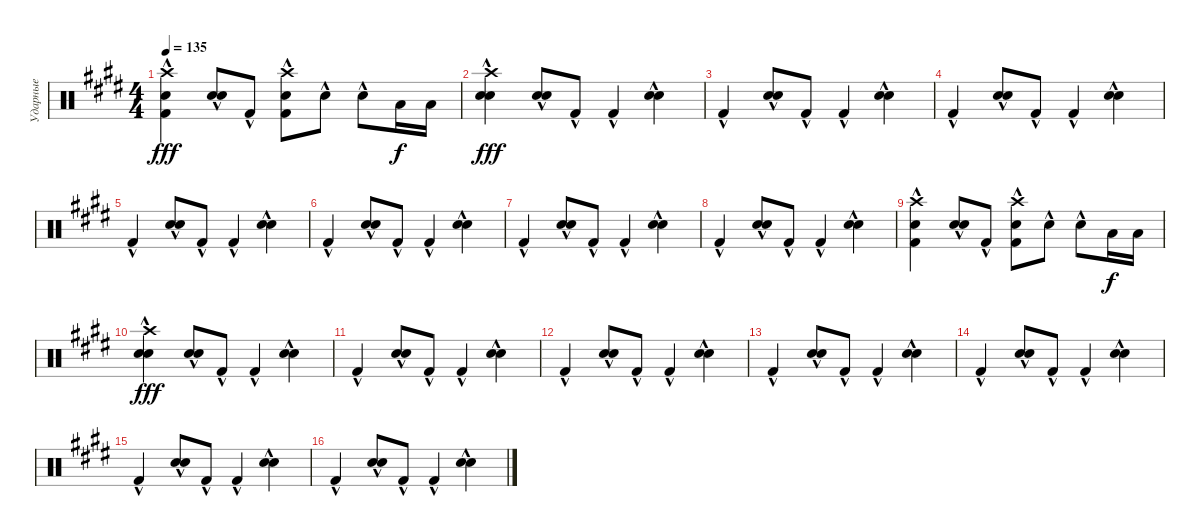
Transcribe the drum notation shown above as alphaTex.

\track ("Ударные" "Ударные") {instrument percussion}
\staff {score}
\articulation defaults
\ts (4 4)
\tempo 135
\clef neutral
\ks c#minor
("Crash high (hit)" "Electric Snare (hit)" "Kick (hit) 2"{hac}).4{dy fff} ("Snare (hit) 2"{hac} "Electric Snare (hit)"{hac}).8 "Kick (hit) 2"{hac}.8 ("Electric Snare (hit)" "Crash high (hit)" "Kick (hit) 2"{hac}).8 "Electric Snare (hit)"{hac}.8 "Electric Snare (hit)"{hac}.8 "Low Floor Tom (hit)".16{dy f} "Low Floor Tom (hit)".16 |
("Crash high (hit)"{hac} "Snare (hit) 2"{hac} "Electric Snare (hit)"{hac}).4{dy fff} ("Snare (hit) 2"{hac} "Electric Snare (hit)"{hac}).8 "Kick (hit) 2"{hac}.8 "Kick (hit) 2"{hac}.4 ("Snare (hit) 2"{hac} "Electric Snare (hit)"{hac}).4 |
"Kick (hit) 2"{hac}.4 ("Snare (hit) 2"{hac} "Electric Snare (hit)"{hac}).8 "Kick (hit) 2"{hac}.8 "Kick (hit) 2"{hac}.4 ("Snare (hit) 2"{hac} "Electric Snare (hit)"{hac}).4 |
"Kick (hit) 2"{hac}.4 ("Snare (hit) 2"{hac} "Electric Snare (hit)"{hac}).8 "Kick (hit) 2"{hac}.8 "Kick (hit) 2"{hac}.4 ("Snare (hit) 2"{hac} "Electric Snare (hit)"{hac}).4 |
"Kick (hit) 2"{hac}.4 ("Snare (hit) 2"{hac} "Electric Snare (hit)"{hac}).8 "Kick (hit) 2"{hac}.8 "Kick (hit) 2"{hac}.4 ("Snare (hit) 2"{hac} "Electric Snare (hit)"{hac}).4 |
"Kick (hit) 2"{hac}.4 ("Snare (hit) 2"{hac} "Electric Snare (hit)"{hac}).8 "Kick (hit) 2"{hac}.8 "Kick (hit) 2"{hac}.4 ("Snare (hit) 2"{hac} "Electric Snare (hit)"{hac}).4 |
"Kick (hit) 2"{hac}.4 ("Snare (hit) 2"{hac} "Electric Snare (hit)"{hac}).8 "Kick (hit) 2"{hac}.8 "Kick (hit) 2"{hac}.4 ("Snare (hit) 2"{hac} "Electric Snare (hit)"{hac}).4 |
"Kick (hit) 2"{hac}.4 ("Snare (hit) 2"{hac} "Electric Snare (hit)"{hac}).8 "Kick (hit) 2"{hac}.8 "Kick (hit) 2"{hac}.4 ("Snare (hit) 2"{hac} "Electric Snare (hit)"{hac}).4 |
("Crash high (hit)" "Electric Snare (hit)" "Kick (hit) 2"{hac}).4 ("Snare (hit) 2"{hac} "Electric Snare (hit)"{hac}).8 "Kick (hit) 2"{hac}.8 ("Electric Snare (hit)" "Crash high (hit)" "Kick (hit) 2"{hac}).8 "Electric Snare (hit)"{hac}.8 "Electric Snare (hit)"{hac}.8 "Low Floor Tom (hit)".16{dy f} "Low Floor Tom (hit)".16 |
("Crash high (hit)"{hac} "Snare (hit) 2"{hac} "Electric Snare (hit)"{hac}).4{dy fff} ("Snare (hit) 2"{hac} "Electric Snare (hit)"{hac}).8 "Kick (hit) 2"{hac}.8 "Kick (hit) 2"{hac}.4 ("Snare (hit) 2"{hac} "Electric Snare (hit)"{hac}).4 |
"Kick (hit) 2"{hac}.4 ("Snare (hit) 2"{hac} "Electric Snare (hit)"{hac}).8 "Kick (hit) 2"{hac}.8 "Kick (hit) 2"{hac}.4 ("Snare (hit) 2"{hac} "Electric Snare (hit)"{hac}).4 |
"Kick (hit) 2"{hac}.4 ("Snare (hit) 2"{hac} "Electric Snare (hit)"{hac}).8 "Kick (hit) 2"{hac}.8 "Kick (hit) 2"{hac}.4 ("Snare (hit) 2"{hac} "Electric Snare (hit)"{hac}).4 |
"Kick (hit) 2"{hac}.4 ("Snare (hit) 2"{hac} "Electric Snare (hit)"{hac}).8 "Kick (hit) 2"{hac}.8 "Kick (hit) 2"{hac}.4 ("Snare (hit) 2"{hac} "Electric Snare (hit)"{hac}).4 |
"Kick (hit) 2"{hac}.4 ("Snare (hit) 2"{hac} "Electric Snare (hit)"{hac}).8 "Kick (hit) 2"{hac}.8 "Kick (hit) 2"{hac}.4 ("Snare (hit) 2"{hac} "Electric Snare (hit)"{hac}).4 |
"Kick (hit) 2"{hac}.4 ("Snare (hit) 2"{hac} "Electric Snare (hit)"{hac}).8 "Kick (hit) 2"{hac}.8 "Kick (hit) 2"{hac}.4 ("Snare (hit) 2"{hac} "Electric Snare (hit)"{hac}).4 |
"Kick (hit) 2"{hac}.4 ("Snare (hit) 2"{hac} "Electric Snare (hit)"{hac}).8 "Kick (hit) 2"{hac}.8 "Kick (hit) 2"{hac}.4 ("Snare (hit) 2"{hac} "Electric Snare (hit)"{hac}).4
